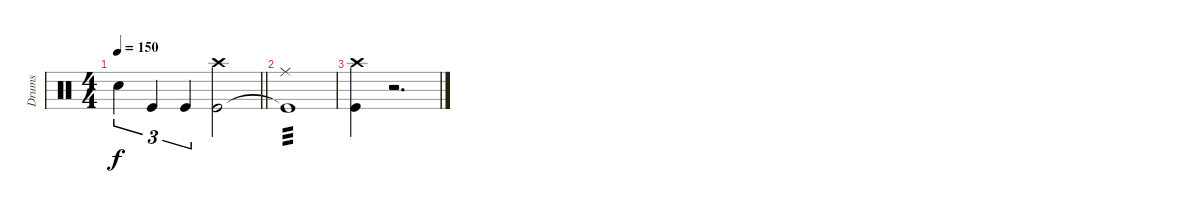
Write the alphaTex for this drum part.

\track ("Drums" "Drums") {instrument percussion}
\staff {score}
\articulation defaults
\ts (4 4)
\tempo 150
\clef neutral
\barLineRight lightlight
\ks c "Snare (hit) 2".4{tu (3 2) dy f} "Kick (hit)".4{tu (3 2)} "Kick (hit)".4{tu (3 2)}
("Crash high (hit)" "Kick (hit)").2 |
("Ride (middle)" "Kick (hit)"{t}).1{tp 3} |
("Crash high (hit)" "Kick (hit)").4 r.2{d}
